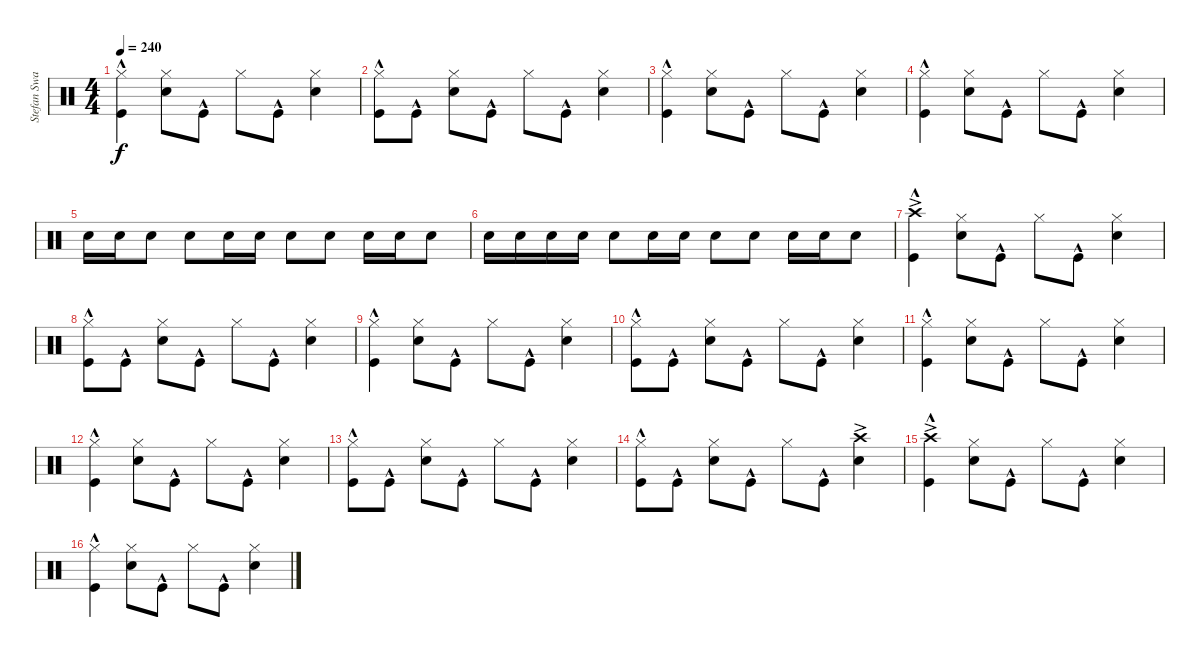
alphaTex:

\track ("Stefan Swarztmann" "Stefan Swa") {instrument percussion}
\staff {score}
\articulation defaults
\ts (4 4)
\tempo 240
\clef neutral
\ks c
("Hi-Hat (closed)" "Kick (hit)"{hac}).4{dy f} ("Hi-Hat (closed)" "Snare (hit) 2").8 "Kick (hit)"{hac}.8 "Hi-Hat (closed)".8 "Kick (hit)"{hac}.8 ("Hi-Hat (closed)" "Snare (hit) 2").4 |
("Hi-Hat (closed)" "Kick (hit)"{hac}).8 "Kick (hit)"{hac}.8 ("Hi-Hat (closed)" "Snare (hit) 2").8 "Kick (hit)"{hac}.8 "Hi-Hat (closed)".8 "Kick (hit)"{hac}.8 ("Hi-Hat (closed)" "Snare (hit) 2").4 |
("Hi-Hat (closed)" "Kick (hit)"{hac}).4 ("Hi-Hat (closed)" "Snare (hit) 2").8 "Kick (hit)"{hac}.8 "Hi-Hat (closed)".8 "Kick (hit)"{hac}.8 ("Hi-Hat (closed)" "Snare (hit) 2").4 |
("Hi-Hat (closed)" "Kick (hit)"{hac}).4 ("Hi-Hat (closed)" "Snare (hit) 2").8 "Kick (hit)"{hac}.8 "Hi-Hat (closed)".8 "Kick (hit)"{hac}.8 ("Hi-Hat (closed)" "Snare (hit) 2").4 |
"Snare (hit) 2".16 "Snare (hit) 2".16 "Snare (hit) 2".8 "Snare (hit) 2".8 "Snare (hit) 2".16 "Snare (hit) 2".16 "Snare (hit) 2".8 "Snare (hit) 2".8 "Snare (hit) 2".16 "Snare (hit) 2".16 "Snare (hit) 2".8 |
"Snare (hit) 2".16 "Snare (hit) 2".16 "Snare (hit) 2".16 "Snare (hit) 2".16 "Snare (hit) 2".8 "Snare (hit) 2".16 "Snare (hit) 2".16 "Snare (hit) 2".8 "Snare (hit) 2".8 "Snare (hit) 2".16 "Snare (hit) 2".16 "Snare (hit) 2".8 |
("Crash high (hit)"{ac} "Kick (hit)"{hac}).4 ("Hi-Hat (closed)" "Snare (hit) 2").8 "Kick (hit)"{hac}.8 "Hi-Hat (closed)".8 "Kick (hit)"{hac}.8 ("Hi-Hat (closed)" "Snare (hit) 2").4 |
("Hi-Hat (closed)" "Kick (hit)"{hac}).8 "Kick (hit)"{hac}.8 ("Hi-Hat (closed)" "Snare (hit) 2").8 "Kick (hit)"{hac}.8 "Hi-Hat (closed)".8 "Kick (hit)"{hac}.8 ("Hi-Hat (closed)" "Snare (hit) 2").4 |
("Hi-Hat (closed)" "Kick (hit)"{hac}).4 ("Hi-Hat (closed)" "Snare (hit) 2").8 "Kick (hit)"{hac}.8 "Hi-Hat (closed)".8 "Kick (hit)"{hac}.8 ("Hi-Hat (closed)" "Snare (hit) 2").4 |
("Hi-Hat (closed)" "Kick (hit)"{hac}).8 "Kick (hit)"{hac}.8 ("Hi-Hat (closed)" "Snare (hit) 2").8 "Kick (hit)"{hac}.8 "Hi-Hat (closed)".8 "Kick (hit)"{hac}.8 ("Hi-Hat (closed)" "Snare (hit) 2").4 |
("Hi-Hat (closed)" "Kick (hit)"{hac}).4 ("Hi-Hat (closed)" "Snare (hit) 2").8 "Kick (hit)"{hac}.8 "Hi-Hat (closed)".8 "Kick (hit)"{hac}.8 ("Hi-Hat (closed)" "Snare (hit) 2").4 |
("Hi-Hat (closed)" "Kick (hit)"{hac}).4 ("Hi-Hat (closed)" "Snare (hit) 2").8 "Kick (hit)"{hac}.8 "Hi-Hat (closed)".8 "Kick (hit)"{hac}.8 ("Hi-Hat (closed)" "Snare (hit) 2").4 |
("Hi-Hat (closed)" "Kick (hit)"{hac}).8 "Kick (hit)"{hac}.8 ("Hi-Hat (closed)" "Snare (hit) 2").8 "Kick (hit)"{hac}.8 "Hi-Hat (closed)".8 "Kick (hit)"{hac}.8 ("Hi-Hat (closed)" "Snare (hit) 2").4 |
("Hi-Hat (closed)" "Kick (hit)"{hac}).8 "Kick (hit)"{hac}.8 ("Hi-Hat (closed)" "Snare (hit) 2").8 "Kick (hit)"{hac}.8 "Hi-Hat (closed)".8 "Kick (hit)"{hac}.8 ("Crash high (hit)"{ac} "Snare (hit) 2").4 |
("Crash high (hit)"{ac} "Kick (hit)"{hac}).4 ("Hi-Hat (closed)" "Snare (hit) 2").8 "Kick (hit)"{hac}.8 "Hi-Hat (closed)".8 "Kick (hit)"{hac}.8 ("Hi-Hat (closed)" "Snare (hit) 2").4 |
("Hi-Hat (closed)" "Kick (hit)"{hac}).4 ("Hi-Hat (closed)" "Snare (hit) 2").8 "Kick (hit)"{hac}.8 "Hi-Hat (closed)".8 "Kick (hit)"{hac}.8 ("Hi-Hat (closed)" "Snare (hit) 2").4
